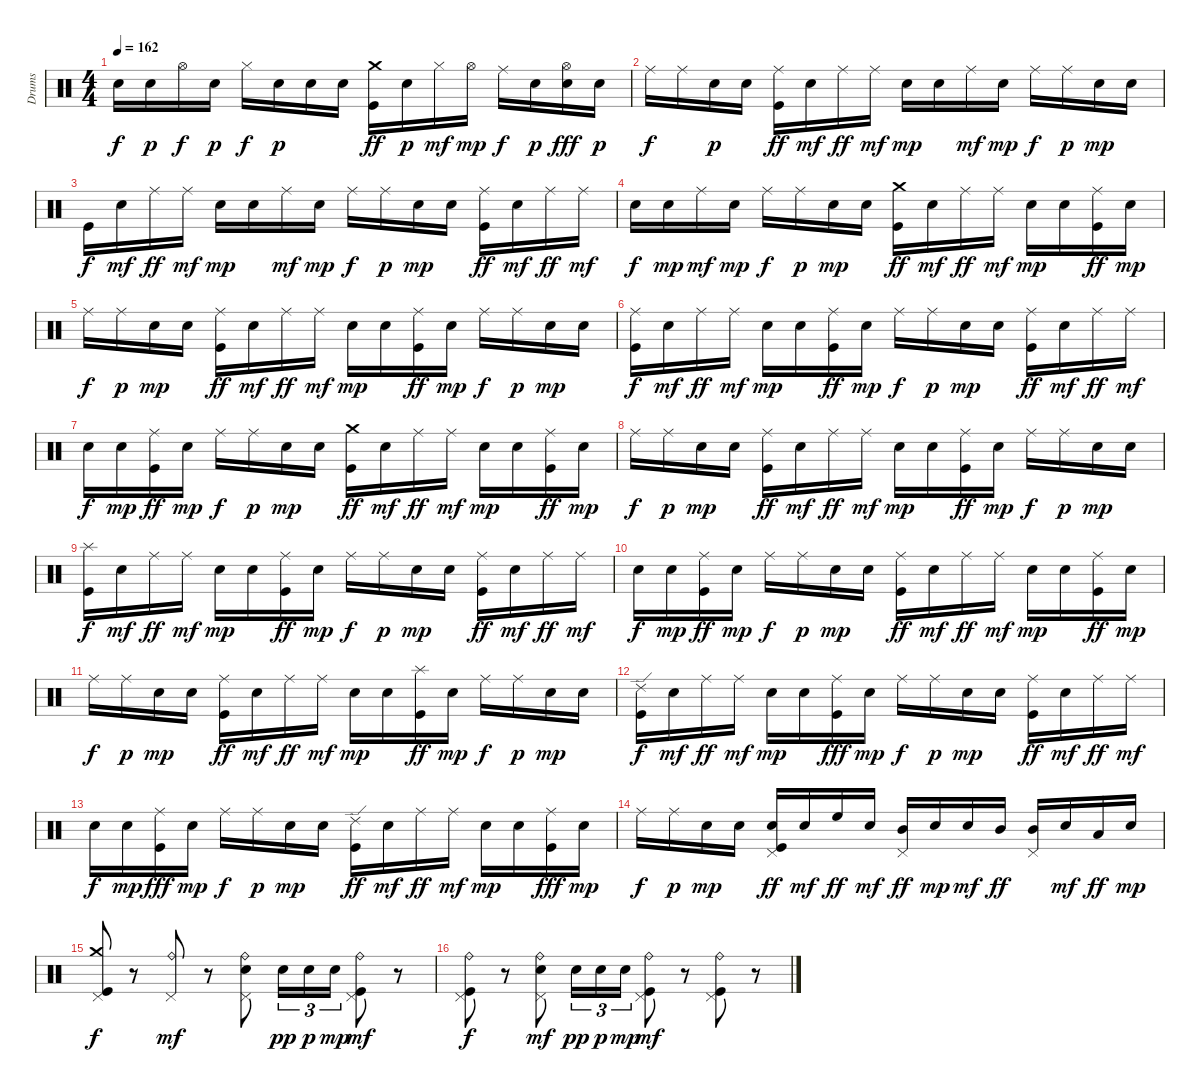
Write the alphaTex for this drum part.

\track ("Drums" "Drums") {instrument percussion}
\staff {score}
\articulation defaults
\ts (4 4)
\tempo 162
\clef neutral
\ks c "Snare (hit) 2".16{dy f} "Snare (hit) 2".16{dy p} "Hi-Hat (open)".16{dy f} "Snare (hit) 2".16{dy p} "Hi-Hat (closed)".16{dy f} "Snare (hit) 2".16{dy p} "Snare (hit) 2".16 "Snare (hit) 2".16
("Kick (hit)" "Crash medium (hit)").16{dy ff} "Snare (hit) 2".16{dy p} "Hi-Hat (closed)".16{dy mf} "Hi-Hat (open)".16{dy mp} "Ride (middle)".16{dy f} "Snare (hit) 2".16{dy p} ("Electric Snare (hit)" "Hi-Hat (open)").16{dy fff} "Snare (hit) 2".16{dy p} |
"Ride (middle)".16{dy f} "Ride (middle)".16 "Snare (hit) 2".16{dy p} "Snare (hit) 2".16 ("Kick (hit)" "Ride (middle)").16{dy ff} "Snare (hit) 2".16{dy mf} "Ride (middle)".16{dy ff} "Ride (middle)".16{dy mf} "Snare (hit) 2".16{dy mp} "Snare (hit) 2".16 "Ride (middle)".16{dy mf} "Snare (hit) 2".16{dy mp} "Ride (middle)".16{dy f} "Ride (middle)".16{dy p} "Snare (hit) 2".16{dy mp} "Snare (hit) 2".16 |
"Kick (hit)".16{dy f} "Snare (hit) 2".16{dy mf} "Ride (middle)".16{dy ff} "Ride (middle)".16{dy mf} "Snare (hit) 2".16{dy mp} "Snare (hit) 2".16 "Ride (middle)".16{dy mf} "Snare (hit) 2".16{dy mp} "Ride (middle)".16{dy f} "Ride (middle)".16{dy p} "Snare (hit) 2".16{dy mp} "Snare (hit) 2".16 ("Kick (hit)" "Ride (middle)").16{dy ff} "Snare (hit) 2".16{dy mf} "Ride (middle)".16{dy ff} "Ride (middle)".16{dy mf} |
"Snare (hit) 2".16{dy f} "Snare (hit) 2".16{dy mp} "Ride (middle)".16{dy mf} "Snare (hit) 2".16{dy mp} "Ride (middle)".16{dy f} "Ride (middle)".16{dy p} "Snare (hit) 2".16{dy mp} "Snare (hit) 2".16 ("Kick (hit)" "Crash medium (hit)").16{dy ff} "Snare (hit) 2".16{dy mf} "Ride (middle)".16{dy ff} "Ride (middle)".16{dy mf} "Snare (hit) 2".16{dy mp} "Snare (hit) 2".16 ("Kick (hit)" "Ride (middle)").16{dy ff} "Snare (hit) 2".16{dy mp} |
"Ride (middle)".16{dy f} "Ride (middle)".16{dy p} "Snare (hit) 2".16{dy mp} "Snare (hit) 2".16 ("Kick (hit)" "Ride (middle)").16{dy ff} "Snare (hit) 2".16{dy mf} "Ride (middle)".16{dy ff} "Ride (middle)".16{dy mf} "Snare (hit) 2".16{dy mp} "Snare (hit) 2".16 ("Kick (hit)" "Ride (middle)").16{dy ff} "Snare (hit) 2".16{dy mp} "Ride (middle)".16{dy f} "Ride (middle)".16{dy p} "Snare (hit) 2".16{dy mp} "Snare (hit) 2".16 |
("Kick (hit)" "Ride (middle)").16{dy f} "Snare (hit) 2".16{dy mf} "Ride (middle)".16{dy ff} "Ride (middle)".16{dy mf} "Snare (hit) 2".16{dy mp} "Snare (hit) 2".16 ("Kick (hit)" "Ride (middle)").16{dy ff} "Snare (hit) 2".16{dy mp} "Ride (middle)".16{dy f} "Ride (middle)".16{dy p} "Snare (hit) 2".16{dy mp} "Snare (hit) 2".16 ("Kick (hit)" "Ride (middle)").16{dy ff} "Snare (hit) 2".16{dy mf} "Ride (middle)".16{dy ff} "Ride (middle)".16{dy mf} |
"Snare (hit) 2".16{dy f} "Snare (hit) 2".16{dy mp} ("Kick (hit)" "Ride (middle)").16{dy ff} "Snare (hit) 2".16{dy mp} "Ride (middle)".16{dy f} "Ride (middle)".16{dy p} "Snare (hit) 2".16{dy mp} "Snare (hit) 2".16 ("Kick (hit)" "Crash medium (hit)").16{dy ff} "Snare (hit) 2".16{dy mf} "Ride (middle)".16{dy ff} "Ride (middle)".16{dy mf} "Snare (hit) 2".16{dy mp} "Snare (hit) 2".16 ("Kick (hit)" "Ride (middle)").16{dy ff} "Snare (hit) 2".16{dy mp} |
"Ride (middle)".16{dy f} "Ride (middle)".16{dy p} "Snare (hit) 2".16{dy mp} "Snare (hit) 2".16 ("Kick (hit)" "Ride (middle)").16{dy ff} "Snare (hit) 2".16{dy mf} "Ride (middle)".16{dy ff} "Ride (middle)".16{dy mf} "Snare (hit) 2".16{dy mp} "Snare (hit) 2".16 ("Kick (hit)" "Ride (middle)").16{dy ff} "Snare (hit) 2".16{dy mp} "Ride (middle)".16{dy f} "Ride (middle)".16{dy p} "Snare (hit) 2".16{dy mp} "Snare (hit) 2".16 |
("Kick (hit)" "Splash (hit)").16{dy f} "Snare (hit) 2".16{dy mf} "Ride (middle)".16{dy ff} "Ride (middle)".16{dy mf} "Snare (hit) 2".16{dy mp} "Snare (hit) 2".16 ("Kick (hit)" "Ride (middle)").16{dy ff} "Snare (hit) 2".16{dy mp} "Ride (middle)".16{dy f} "Ride (middle)".16{dy p} "Snare (hit) 2".16{dy mp} "Snare (hit) 2".16 ("Kick (hit)" "Ride (middle)").16{dy ff} "Snare (hit) 2".16{dy mf} "Ride (middle)".16{dy ff} "Ride (middle)".16{dy mf} |
"Snare (hit) 2".16{dy f} "Snare (hit) 2".16{dy mp} ("Kick (hit)" "Ride (middle)").16{dy ff} "Snare (hit) 2".16{dy mp} "Ride (middle)".16{dy f} "Ride (middle)".16{dy p} "Snare (hit) 2".16{dy mp} "Snare (hit) 2".16 ("Kick (hit)" "Ride (middle)").16{dy ff} "Snare (hit) 2".16{dy mf} "Ride (middle)".16{dy ff} "Ride (middle)".16{dy mf} "Snare (hit) 2".16{dy mp} "Snare (hit) 2".16 ("Kick (hit)" "Ride (middle)").16{dy ff} "Snare (hit) 2".16{dy mp} |
"Ride (middle)".16{dy f} "Ride (middle)".16{dy p} "Snare (hit) 2".16{dy mp} "Snare (hit) 2".16 ("Kick (hit)" "Ride (middle)").16{dy ff} "Snare (hit) 2".16{dy mf} "Ride (middle)".16{dy ff} "Ride (middle)".16{dy mf} "Snare (hit) 2".16{dy mp} "Snare (hit) 2".16 ("Kick (hit)" "Splash (hit)").16{dy ff} "Snare (hit) 2".16{dy mp} "Ride (middle)".16{dy f} "Ride (middle)".16{dy p} "Snare (hit) 2".16{dy mp} "Snare (hit) 2".16 |
("Kick (hit)" "Ride (edge) 2").16{dy f} "Snare (hit) 2".16{dy mf} "Ride (middle)".16{dy ff} "Ride (middle)".16{dy mf} "Snare (hit) 2".16{dy mp} "Snare (hit) 2".16 ("Kick (hit)" "Ride (middle)").16{dy fff} "Snare (hit) 2".16{dy mp} "Ride (middle)".16{dy f} "Ride (middle)".16{dy p} "Snare (hit) 2".16{dy mp} "Snare (hit) 2".16 ("Kick (hit)" "Ride (middle)").16{dy ff} "Snare (hit) 2".16{dy mf} "Ride (middle)".16{dy ff} "Ride (middle)".16{dy mf} |
"Snare (hit) 2".16{dy f} "Snare (hit) 2".16{dy mp} ("Kick (hit)" "Ride (middle)").16{dy fff} "Snare (hit) 2".16{dy mp} "Ride (middle)".16{dy f} "Ride (middle)".16{dy p} "Snare (hit) 2".16{dy mp} "Snare (hit) 2".16 ("Kick (hit)" "Ride (edge) 2").16{dy ff} "Snare (hit) 2".16{dy mf} "Ride (middle)".16{dy ff} "Ride (middle)".16{dy mf} "Snare (hit) 2".16{dy mp} "Snare (hit) 2".16 ("Kick (hit)" "Ride (middle)").16{dy fff} "Snare (hit) 2".16{dy mp} |
"Ride (middle)".16{dy f} "Ride (middle)".16{dy p} "Snare (hit) 2".16{dy mp} "Snare (hit) 2".16 ("Snare (hit) 2" "Kick (hit)" "Pedal Hi-Hat (hit)").16{dy ff} "Snare (hit) 2".16{dy mf} "High Floor Tom (hit)".16{dy ff} "Snare (hit) 2".16{dy mf} ("Mid Tom (hit)" "Pedal Hi-Hat (hit)").16{dy ff} "Snare (hit) 2".16{dy mp} "Snare (hit) 2".16{dy mf} "Mid Tom (hit)".16{dy ff} ("Mid Tom (hit)" "Pedal Hi-Hat (hit)").16 "Snare (hit) 2".16{dy mf} "Low Tom (hit)".16{dy ff} "Snare (hit) 2".16{dy mp} |
("Kick (hit)" "Pedal Hi-Hat (hit)" "Crash medium (hit)").8{dy f} r.8 ("Pedal Hi-Hat (hit)" "Ride (bell)").8{dy mf} r.8 ("Electric Snare (hit)" "Pedal Hi-Hat (hit)" "Ride (bell)").8 "Snare (hit) 2".16{tu (3 2) dy pp} "Snare (hit) 2".16{tu (3 2) dy p} "Snare (hit) 2".16{tu (3 2) dy mp} ("Kick (hit)" "Pedal Hi-Hat (hit)" "Ride (bell)").8{dy mf} r.8 |
("Kick (hit)" "Pedal Hi-Hat (hit)" "Ride (bell)").8{dy f} r.8 ("Electric Snare (hit)" "Pedal Hi-Hat (hit)" "Ride (bell)").8{dy mf} "Snare (hit) 2".16{tu (3 2) dy pp} "Snare (hit) 2".16{tu (3 2) dy p} "Snare (hit) 2".16{tu (3 2) dy mp} ("Kick (hit)" "Pedal Hi-Hat (hit)" "Ride (bell)").8{dy mf} r.8 ("Kick (hit)" "Pedal Hi-Hat (hit)" "Ride (bell)").8 r.8
